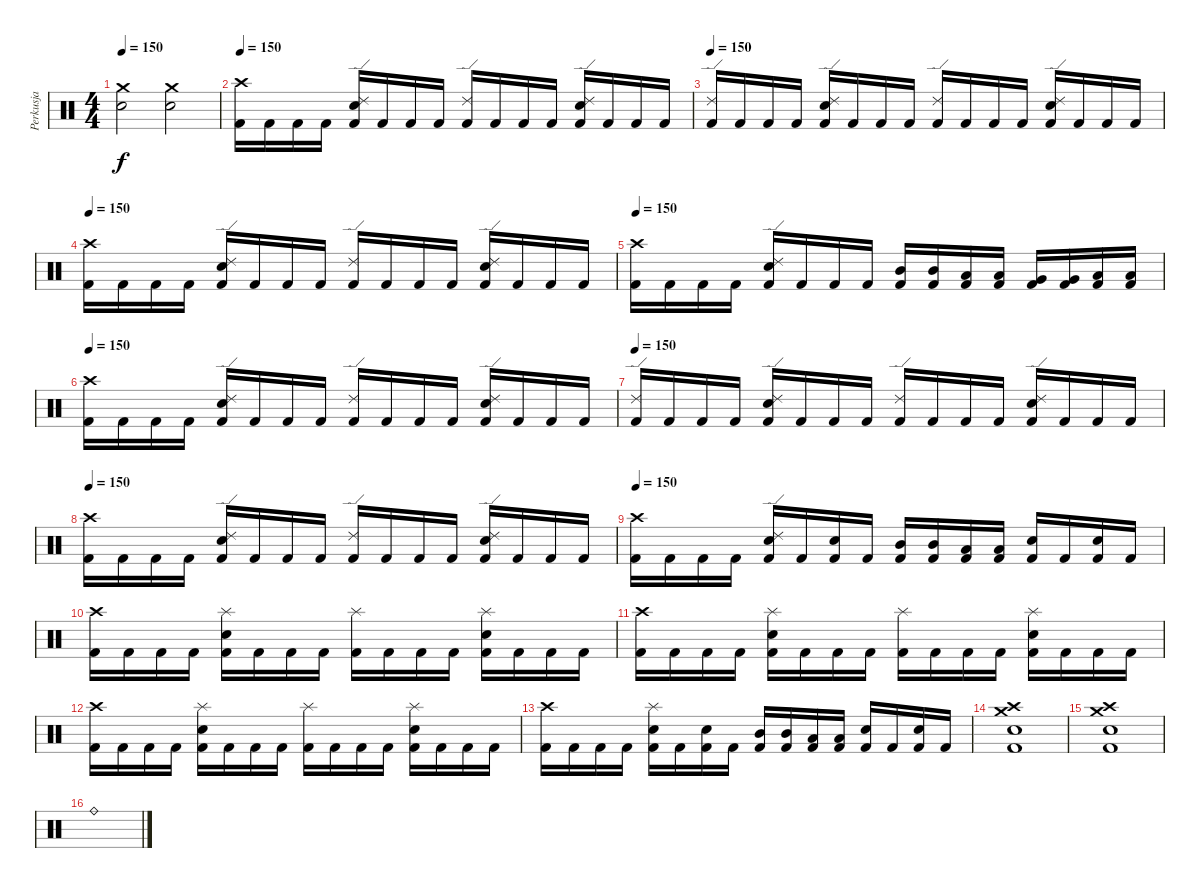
\track ("Perkusja" "Perkusja") {instrument percussion}
\staff {score}
\articulation defaults
\ts (4 4)
\tempo 150
\clef neutral
\ks c
("Crash medium (hit)" "Snare (hit) 2").2{dy f} ("Crash medium (hit)" "Snare (hit) 2").2 |
\tempo 150
("Crash high (hit)" "Kick (hit) 2").16 "Kick (hit) 2".16 "Kick (hit) 2".16 "Kick (hit) 2".16 ("Ride (edge) 2" "Electric Snare (hit)" "Kick (hit) 2").16 "Kick (hit) 2".16 "Kick (hit) 2".16 "Kick (hit) 2".16 ("Ride (edge) 2" "Kick (hit) 2").16 "Kick (hit) 2".16 "Kick (hit) 2".16 "Kick (hit) 2".16 ("Ride (edge) 2" "Electric Snare (hit)" "Kick (hit) 2").16 "Kick (hit) 2".16 "Kick (hit) 2".16 "Kick (hit) 2".16 |
\tempo 150
("Ride (edge) 2" "Kick (hit) 2").16 "Kick (hit) 2".16 "Kick (hit) 2".16 "Kick (hit) 2".16 ("Ride (edge) 2" "Electric Snare (hit)" "Kick (hit) 2").16 "Kick (hit) 2".16 "Kick (hit) 2".16 "Kick (hit) 2".16 ("Ride (edge) 2" "Kick (hit) 2").16 "Kick (hit) 2".16 "Kick (hit) 2".16 "Kick (hit) 2".16 ("Ride (edge) 2" "Electric Snare (hit)" "Kick (hit) 2").16 "Kick (hit) 2".16 "Kick (hit) 2".16 "Kick (hit) 2".16 |
\tempo 150
("Crash high (hit)" "Kick (hit) 2").16 "Kick (hit) 2".16 "Kick (hit) 2".16 "Kick (hit) 2".16 ("Ride (edge) 2" "Electric Snare (hit)" "Kick (hit) 2").16 "Kick (hit) 2".16 "Kick (hit) 2".16 "Kick (hit) 2".16 ("Ride (edge) 2" "Kick (hit) 2").16 "Kick (hit) 2".16 "Kick (hit) 2".16 "Kick (hit) 2".16 ("Ride (edge) 2" "Electric Snare (hit)" "Kick (hit) 2").16 "Kick (hit) 2".16 "Kick (hit) 2".16 "Kick (hit) 2".16 |
\tempo 150
("Crash high (hit)" "Kick (hit) 2").16 "Kick (hit) 2".16 "Kick (hit) 2".16 "Kick (hit) 2".16 ("Ride (edge) 2" "Electric Snare (hit)" "Kick (hit) 2").16 "Kick (hit) 2".16 "Kick (hit) 2".16 "Kick (hit) 2".16 ("Mid Tom (hit)" "Kick (hit) 2").16 ("Mid Tom (hit)" "Kick (hit) 2").16 ("Low Tom (hit)" "Kick (hit) 2").16 ("Low Tom (hit)" "Kick (hit) 2").16 ("Very Low Tom (hit)" "Kick (hit) 2").16 ("Very Low Tom (hit)" "Kick (hit) 2").16 ("Low Floor Tom (hit)" "Kick (hit) 2").16 ("Low Floor Tom (hit)" "Kick (hit) 2").16 |
\tempo 150
("Crash high (hit)" "Kick (hit) 2").16 "Kick (hit) 2".16 "Kick (hit) 2".16 "Kick (hit) 2".16 ("Ride (edge) 2" "Electric Snare (hit)" "Kick (hit) 2").16 "Kick (hit) 2".16 "Kick (hit) 2".16 "Kick (hit) 2".16 ("Ride (edge) 2" "Kick (hit) 2").16 "Kick (hit) 2".16 "Kick (hit) 2".16 "Kick (hit) 2".16 ("Ride (edge) 2" "Electric Snare (hit)" "Kick (hit) 2").16 "Kick (hit) 2".16 "Kick (hit) 2".16 "Kick (hit) 2".16 |
\tempo 150
("Ride (edge) 2" "Kick (hit) 2").16 "Kick (hit) 2".16 "Kick (hit) 2".16 "Kick (hit) 2".16 ("Ride (edge) 2" "Electric Snare (hit)" "Kick (hit) 2").16 "Kick (hit) 2".16 "Kick (hit) 2".16 "Kick (hit) 2".16 ("Ride (edge) 2" "Kick (hit) 2").16 "Kick (hit) 2".16 "Kick (hit) 2".16 "Kick (hit) 2".16 ("Ride (edge) 2" "Electric Snare (hit)" "Kick (hit) 2").16 "Kick (hit) 2".16 "Kick (hit) 2".16 "Kick (hit) 2".16 |
\tempo 150
("Crash high (hit)" "Kick (hit) 2").16 "Kick (hit) 2".16 "Kick (hit) 2".16 "Kick (hit) 2".16 ("Ride (edge) 2" "Electric Snare (hit)" "Kick (hit) 2").16 "Kick (hit) 2".16 "Kick (hit) 2".16 "Kick (hit) 2".16 ("Ride (edge) 2" "Kick (hit) 2").16 "Kick (hit) 2".16 "Kick (hit) 2".16 "Kick (hit) 2".16 ("Ride (edge) 2" "Electric Snare (hit)" "Kick (hit) 2").16 "Kick (hit) 2".16 "Kick (hit) 2".16 "Kick (hit) 2".16 |
\tempo 150
("Crash high (hit)" "Kick (hit) 2").16 "Kick (hit) 2".16 "Kick (hit) 2".16 "Kick (hit) 2".16 ("Ride (edge) 2" "Electric Snare (hit)" "Kick (hit) 2").16 "Kick (hit) 2".16 ("Electric Snare (hit)" "Kick (hit) 2").16 "Kick (hit) 2".16 ("Mid Tom (hit)" "Kick (hit) 2").16 ("Mid Tom (hit)" "Kick (hit) 2").16 ("Low Tom (hit)" "Kick (hit) 2").16 ("Low Tom (hit)" "Kick (hit) 2").16 ("Electric Snare (hit)" "Kick (hit) 2").16 "Kick (hit) 2".16 ("Electric Snare (hit)" "Kick (hit) 2").16 "Kick (hit) 2".16 |
("Crash high (hit)" "Kick (hit) 2").16 "Kick (hit) 2".16 "Kick (hit) 2".16 "Kick (hit) 2".16 ("Splash (hit)" "Electric Snare (hit)" "Kick (hit) 2").16 "Kick (hit) 2".16 "Kick (hit) 2".16 "Kick (hit) 2".16 ("Splash (hit)" "Kick (hit) 2").16 "Kick (hit) 2".16 "Kick (hit) 2".16 "Kick (hit) 2".16 ("Splash (hit)" "Electric Snare (hit)" "Kick (hit) 2").16 "Kick (hit) 2".16 "Kick (hit) 2".16 "Kick (hit) 2".16 |
("Crash high (hit)" "Kick (hit) 2").16 "Kick (hit) 2".16 "Kick (hit) 2".16 "Kick (hit) 2".16 ("Splash (hit)" "Electric Snare (hit)" "Kick (hit) 2").16 "Kick (hit) 2".16 "Kick (hit) 2".16 "Kick (hit) 2".16 ("Splash (hit)" "Kick (hit) 2").16 "Kick (hit) 2".16 "Kick (hit) 2".16 "Kick (hit) 2".16 ("Splash (hit)" "Electric Snare (hit)" "Kick (hit) 2").16 "Kick (hit) 2".16 "Kick (hit) 2".16 "Kick (hit) 2".16 |
("Crash high (hit)" "Kick (hit) 2").16 "Kick (hit) 2".16 "Kick (hit) 2".16 "Kick (hit) 2".16 ("Splash (hit)" "Electric Snare (hit)" "Kick (hit) 2").16 "Kick (hit) 2".16 "Kick (hit) 2".16 "Kick (hit) 2".16 ("Splash (hit)" "Kick (hit) 2").16 "Kick (hit) 2".16 "Kick (hit) 2".16 "Kick (hit) 2".16 ("Splash (hit)" "Electric Snare (hit)" "Kick (hit) 2").16 "Kick (hit) 2".16 "Kick (hit) 2".16 "Kick (hit) 2".16 |
("Crash high (hit)" "Kick (hit) 2").16 "Kick (hit) 2".16 "Kick (hit) 2".16 "Kick (hit) 2".16 ("Splash (hit)" "Electric Snare (hit)" "Kick (hit) 2").16 "Kick (hit) 2".16 ("Electric Snare (hit)" "Kick (hit) 2").16 "Kick (hit) 2".16 ("Mid Tom (hit)" "Kick (hit) 2").16 ("Mid Tom (hit)" "Kick (hit) 2").16 ("Low Tom (hit)" "Kick (hit) 2").16 ("Low Tom (hit)" "Kick (hit) 2").16 ("Electric Snare (hit)" "Kick (hit) 2").16 "Kick (hit) 2".16 ("Electric Snare (hit)" "Kick (hit) 2").16 "Kick (hit) 2".16 |
("Crash medium (hit)" "Crash high (hit)" "Snare (hit) 2" "Kick (hit) 2").1 |
("Crash medium (hit)" "Snare (hit) 2" "Kick (hit) 2" "Crash high (hit)").1 |
"Ride (bell)".1
